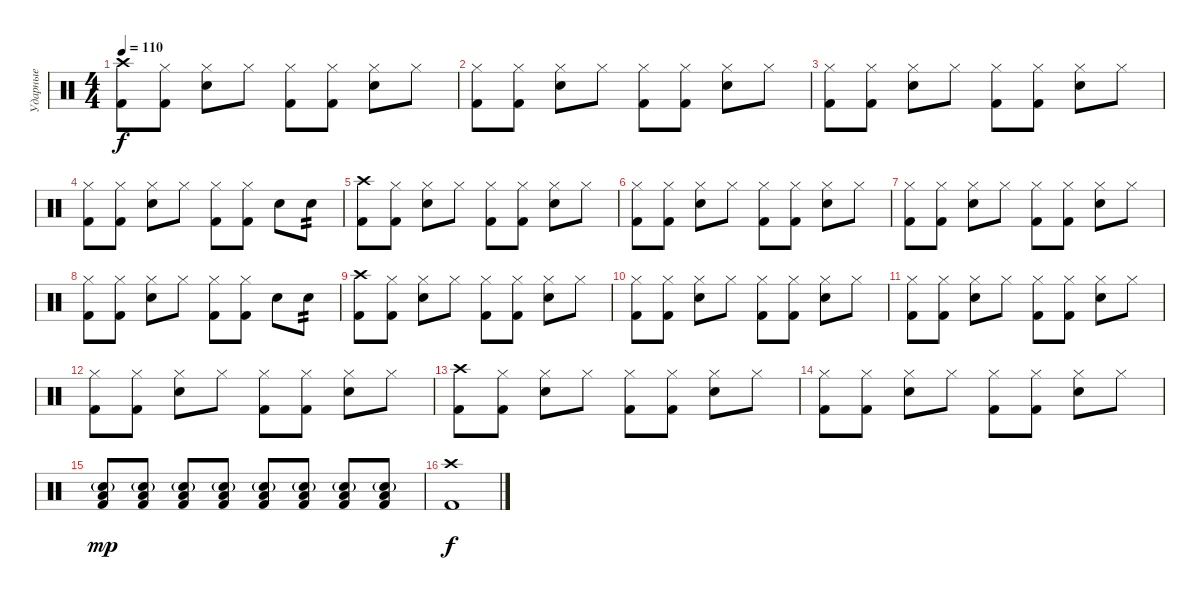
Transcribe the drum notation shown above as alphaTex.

\track ("Ударные" "Ударные") {instrument percussion}
\staff {score}
\articulation defaults
\ts (4 4)
\tempo 110
\clef neutral
\ks c
("Kick (hit) 2" "Crash high (hit)").8{dy f} ("Kick (hit) 2" "Hi-Hat (closed)").8 ("Snare (hit) 2" "Hi-Hat (closed)").8 "Hi-Hat (closed)".8 ("Kick (hit) 2" "Hi-Hat (closed)").8 ("Kick (hit) 2" "Hi-Hat (closed)").8 ("Snare (hit) 2" "Hi-Hat (closed)").8 "Hi-Hat (closed)".8 |
("Kick (hit) 2" "Hi-Hat (closed)").8 ("Kick (hit) 2" "Hi-Hat (closed)").8 ("Snare (hit) 2" "Hi-Hat (closed)").8 "Hi-Hat (closed)".8 ("Kick (hit) 2" "Hi-Hat (closed)").8 ("Kick (hit) 2" "Hi-Hat (closed)").8 ("Snare (hit) 2" "Hi-Hat (closed)").8 "Hi-Hat (closed)".8 |
("Kick (hit) 2" "Hi-Hat (closed)").8 ("Kick (hit) 2" "Hi-Hat (closed)").8 ("Snare (hit) 2" "Hi-Hat (closed)").8 "Hi-Hat (closed)".8 ("Kick (hit) 2" "Hi-Hat (closed)").8 ("Kick (hit) 2" "Hi-Hat (closed)").8 ("Snare (hit) 2" "Hi-Hat (closed)").8 "Hi-Hat (closed)".8 |
("Kick (hit) 2" "Hi-Hat (closed)").8 ("Kick (hit) 2" "Hi-Hat (closed)").8 ("Snare (hit) 2" "Hi-Hat (closed)").8 "Hi-Hat (closed)".8 ("Kick (hit) 2" "Hi-Hat (closed)").8 ("Kick (hit) 2" "Hi-Hat (closed)").8 "Snare (hit) 2".8 "Snare (hit) 2".8{tp 2} |
("Kick (hit) 2" "Crash high (hit)").8 ("Kick (hit) 2" "Hi-Hat (closed)").8 ("Snare (hit) 2" "Hi-Hat (closed)").8 "Hi-Hat (closed)".8 ("Kick (hit) 2" "Hi-Hat (closed)").8 ("Kick (hit) 2" "Hi-Hat (closed)").8 ("Snare (hit) 2" "Hi-Hat (closed)").8 "Hi-Hat (closed)".8 |
("Kick (hit) 2" "Hi-Hat (closed)").8 ("Kick (hit) 2" "Hi-Hat (closed)").8 ("Snare (hit) 2" "Hi-Hat (closed)").8 "Hi-Hat (closed)".8 ("Kick (hit) 2" "Hi-Hat (closed)").8 ("Kick (hit) 2" "Hi-Hat (closed)").8 ("Snare (hit) 2" "Hi-Hat (closed)").8 "Hi-Hat (closed)".8 |
("Kick (hit) 2" "Hi-Hat (closed)").8 ("Kick (hit) 2" "Hi-Hat (closed)").8 ("Snare (hit) 2" "Hi-Hat (closed)").8 "Hi-Hat (closed)".8 ("Kick (hit) 2" "Hi-Hat (closed)").8 ("Kick (hit) 2" "Hi-Hat (closed)").8 ("Snare (hit) 2" "Hi-Hat (closed)").8 "Hi-Hat (closed)".8 |
("Kick (hit) 2" "Hi-Hat (closed)").8 ("Kick (hit) 2" "Hi-Hat (closed)").8 ("Snare (hit) 2" "Hi-Hat (closed)").8 "Hi-Hat (closed)".8 ("Kick (hit) 2" "Hi-Hat (closed)").8 ("Kick (hit) 2" "Hi-Hat (closed)").8 "Snare (hit) 2".8 "Snare (hit) 2".8{tp 2} |
("Kick (hit) 2" "Crash high (hit)").8 ("Kick (hit) 2" "Hi-Hat (closed)").8 ("Snare (hit) 2" "Hi-Hat (closed)").8 "Hi-Hat (closed)".8 ("Kick (hit) 2" "Hi-Hat (closed)").8 ("Kick (hit) 2" "Hi-Hat (closed)").8 ("Snare (hit) 2" "Hi-Hat (closed)").8 "Hi-Hat (closed)".8 |
("Kick (hit) 2" "Hi-Hat (closed)").8 ("Kick (hit) 2" "Hi-Hat (closed)").8 ("Snare (hit) 2" "Hi-Hat (closed)").8 "Hi-Hat (closed)".8 ("Kick (hit) 2" "Hi-Hat (closed)").8 ("Kick (hit) 2" "Hi-Hat (closed)").8 ("Snare (hit) 2" "Hi-Hat (closed)").8 "Hi-Hat (closed)".8 |
("Kick (hit) 2" "Hi-Hat (closed)").8 ("Kick (hit) 2" "Hi-Hat (closed)").8 ("Snare (hit) 2" "Hi-Hat (closed)").8 "Hi-Hat (closed)".8 ("Kick (hit) 2" "Hi-Hat (closed)").8 ("Kick (hit) 2" "Hi-Hat (closed)").8 ("Snare (hit) 2" "Hi-Hat (closed)").8 "Hi-Hat (closed)".8 |
("Kick (hit) 2" "Hi-Hat (closed)").8 ("Kick (hit) 2" "Hi-Hat (closed)").8 ("Snare (hit) 2" "Hi-Hat (closed)").8 "Hi-Hat (closed)".8 ("Kick (hit) 2" "Hi-Hat (closed)").8 ("Kick (hit) 2" "Hi-Hat (closed)").8 ("Snare (hit) 2" "Hi-Hat (closed)").8 "Hi-Hat (closed)".8 |
("Kick (hit) 2" "Crash high (hit)").8 ("Kick (hit) 2" "Hi-Hat (closed)").8 ("Snare (hit) 2" "Hi-Hat (closed)").8 "Hi-Hat (closed)".8 ("Kick (hit) 2" "Hi-Hat (closed)").8 ("Kick (hit) 2" "Hi-Hat (closed)").8 ("Snare (hit) 2" "Hi-Hat (closed)").8 "Hi-Hat (closed)".8 |
("Kick (hit) 2" "Hi-Hat (closed)").8 ("Kick (hit) 2" "Hi-Hat (closed)").8 ("Snare (hit) 2" "Hi-Hat (closed)").8 "Hi-Hat (closed)".8 ("Kick (hit) 2" "Hi-Hat (closed)").8 ("Kick (hit) 2" "Hi-Hat (closed)").8 ("Snare (hit) 2" "Hi-Hat (closed)").8 "Hi-Hat (closed)".8 |
("Snare (hit) 2"{g} "Low Floor Tom (hit)" "Kick (hit) 2").8{dy mp} ("Snare (hit) 2"{g} "Low Floor Tom (hit)" "Kick (hit) 2").8 ("Snare (hit) 2"{g} "Low Floor Tom (hit)" "Kick (hit) 2").8 ("Snare (hit) 2"{g} "Low Floor Tom (hit)" "Kick (hit) 2").8 ("Snare (hit) 2"{g} "Low Floor Tom (hit)" "Kick (hit) 2").8 ("Snare (hit) 2"{g} "Low Floor Tom (hit)" "Kick (hit) 2").8 ("Snare (hit) 2"{g} "Low Floor Tom (hit)" "Kick (hit) 2").8 ("Snare (hit) 2"{g} "Low Floor Tom (hit)" "Kick (hit) 2").8 |
("Kick (hit) 2" "Crash high (hit)").1{dy f}
